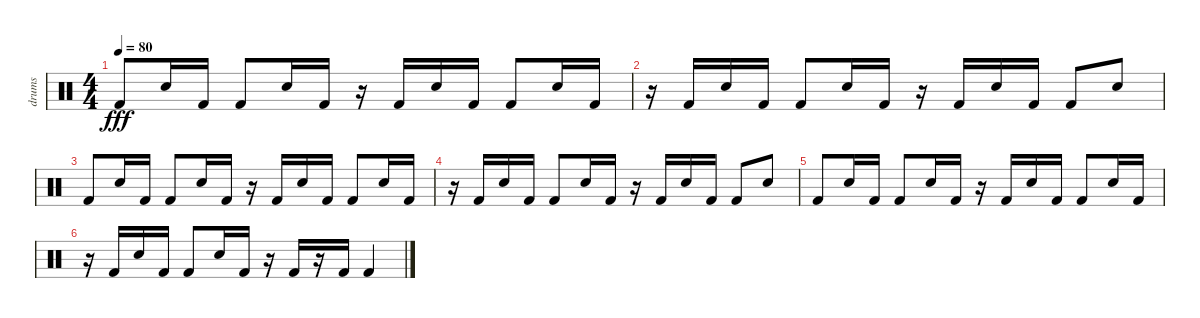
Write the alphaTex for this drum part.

\track ("drums" "drums") {instrument percussion}
\staff {score}
\articulation defaults
\ts (4 4)
\tempo 80
\clef neutral
\ks c "Kick (hit) 2".8{dy fff} "Electric Snare (hit)".16 "Kick (hit) 2".16 "Kick (hit) 2".8 "Electric Snare (hit)".16 "Kick (hit) 2".16
r.16 "Kick (hit) 2".16 "Electric Snare (hit)".16 "Kick (hit) 2".16 "Kick (hit) 2".8 "Electric Snare (hit)".16 "Kick (hit) 2".16 |
r.16 "Kick (hit) 2".16 "Electric Snare (hit)".16 "Kick (hit) 2".16 "Kick (hit) 2".8 "Electric Snare (hit)".16 "Kick (hit) 2".16 r.16 "Kick (hit) 2".16 "Electric Snare (hit)".16 "Kick (hit) 2".16 "Kick (hit) 2".8 "Electric Snare (hit)".8 |
"Kick (hit) 2".8 "Electric Snare (hit)".16 "Kick (hit) 2".16 "Kick (hit) 2".8 "Electric Snare (hit)".16 "Kick (hit) 2".16 r.16 "Kick (hit) 2".16 "Electric Snare (hit)".16 "Kick (hit) 2".16 "Kick (hit) 2".8 "Electric Snare (hit)".16 "Kick (hit) 2".16 |
r.16 "Kick (hit) 2".16 "Electric Snare (hit)".16 "Kick (hit) 2".16 "Kick (hit) 2".8 "Electric Snare (hit)".16 "Kick (hit) 2".16 r.16 "Kick (hit) 2".16 "Electric Snare (hit)".16 "Kick (hit) 2".16 "Kick (hit) 2".8 "Electric Snare (hit)".8 |
"Kick (hit) 2".8 "Electric Snare (hit)".16 "Kick (hit) 2".16 "Kick (hit) 2".8 "Electric Snare (hit)".16 "Kick (hit) 2".16 r.16 "Kick (hit) 2".16 "Electric Snare (hit)".16 "Kick (hit) 2".16 "Kick (hit) 2".8 "Electric Snare (hit)".16 "Kick (hit) 2".16 |
r.16 "Kick (hit) 2".16 "Electric Snare (hit)".16 "Kick (hit) 2".16 "Kick (hit) 2".8 "Electric Snare (hit)".16 "Kick (hit) 2".16 r.16 "Kick (hit) 2".16 r.16 "Kick (hit) 2".16 "Kick (hit) 2".4
